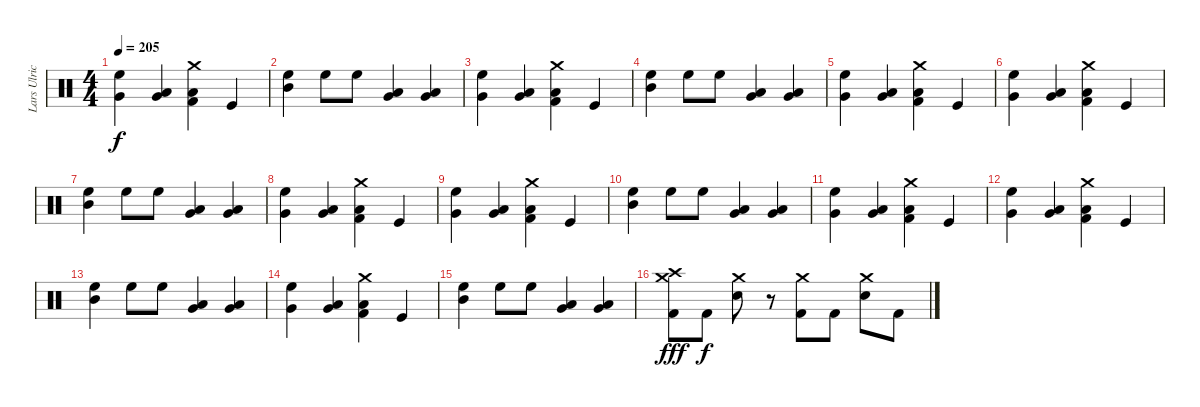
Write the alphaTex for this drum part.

\track ("Lars Ulrich" "Lars Ulric") {instrument percussion}
\staff {score}
\articulation defaults
\ts (4 4)
\tempo 205
\clef neutral
\ks c
("High Floor Tom (hit)" "Very Low Tom (hit)").4{dy f} ("Low Floor Tom (hit)" "Very Low Tom (hit)").4 ("Crash medium (hit)" "Low Tom (hit)" "Kick (hit) 2").4 "Kick (hit)".4 |
("Mid Tom (hit)" "High Floor Tom (hit)").4 "High Floor Tom (hit)".8 "High Floor Tom (hit)".8 ("Very Low Tom (hit)" "Low Tom (hit)").4 ("Low Floor Tom (hit)" "Very Low Tom (hit)").4 |
("High Floor Tom (hit)" "Very Low Tom (hit)").4 ("Low Floor Tom (hit)" "Very Low Tom (hit)").4 ("Crash medium (hit)" "Low Tom (hit)" "Kick (hit) 2").4 "Kick (hit)".4 |
("Mid Tom (hit)" "High Floor Tom (hit)").4 "High Floor Tom (hit)".8 "High Floor Tom (hit)".8 ("Very Low Tom (hit)" "Low Tom (hit)").4 ("Low Floor Tom (hit)" "Very Low Tom (hit)").4 |
("High Floor Tom (hit)" "Very Low Tom (hit)").4 ("Low Floor Tom (hit)" "Very Low Tom (hit)").4 ("Crash medium (hit)" "Low Tom (hit)" "Kick (hit) 2").4 "Kick (hit)".4 |
("High Floor Tom (hit)" "Very Low Tom (hit)").4 ("Low Floor Tom (hit)" "Very Low Tom (hit)").4 ("Crash medium (hit)" "Low Tom (hit)" "Kick (hit) 2").4 "Kick (hit)".4 |
("Mid Tom (hit)" "High Floor Tom (hit)").4 "High Floor Tom (hit)".8 "High Floor Tom (hit)".8 ("Very Low Tom (hit)" "Low Tom (hit)").4 ("Low Floor Tom (hit)" "Very Low Tom (hit)").4 |
("High Floor Tom (hit)" "Very Low Tom (hit)").4 ("Low Floor Tom (hit)" "Very Low Tom (hit)").4 ("Crash medium (hit)" "Low Tom (hit)" "Kick (hit) 2").4 "Kick (hit)".4 |
("High Floor Tom (hit)" "Very Low Tom (hit)").4 ("Low Floor Tom (hit)" "Very Low Tom (hit)").4 ("Crash medium (hit)" "Low Tom (hit)" "Kick (hit) 2").4 "Kick (hit)".4 |
("Mid Tom (hit)" "High Floor Tom (hit)").4 "High Floor Tom (hit)".8 "High Floor Tom (hit)".8 ("Very Low Tom (hit)" "Low Tom (hit)").4 ("Low Floor Tom (hit)" "Very Low Tom (hit)").4 |
("High Floor Tom (hit)" "Very Low Tom (hit)").4 ("Low Floor Tom (hit)" "Very Low Tom (hit)").4 ("Crash medium (hit)" "Low Tom (hit)" "Kick (hit) 2").4 "Kick (hit)".4 |
("High Floor Tom (hit)" "Very Low Tom (hit)").4 ("Low Floor Tom (hit)" "Very Low Tom (hit)").4 ("Crash medium (hit)" "Low Tom (hit)" "Kick (hit) 2").4 "Kick (hit)".4 |
("Mid Tom (hit)" "High Floor Tom (hit)").4 "High Floor Tom (hit)".8 "High Floor Tom (hit)".8 ("Very Low Tom (hit)" "Low Tom (hit)").4 ("Low Floor Tom (hit)" "Very Low Tom (hit)").4 |
("High Floor Tom (hit)" "Very Low Tom (hit)").4 ("Low Floor Tom (hit)" "Very Low Tom (hit)").4 ("Crash medium (hit)" "Low Tom (hit)" "Kick (hit) 2").4 "Kick (hit)".4 |
("Mid Tom (hit)" "High Floor Tom (hit)").4 "High Floor Tom (hit)".8 "High Floor Tom (hit)".8 ("Very Low Tom (hit)" "Low Tom (hit)").4 ("Low Floor Tom (hit)" "Very Low Tom (hit)").4 |
("Crash medium (hit)" "Crash high (hit)" "Kick (hit) 2").8{dy fff} "Kick (hit) 2".8{dy f} ("Crash medium (hit)" "Electric Snare (hit)").8 r.8 ("Crash medium (hit)" "Kick (hit) 2").8 "Kick (hit) 2".8 ("Crash medium (hit)" "Electric Snare (hit)").8 "Kick (hit) 2".8
